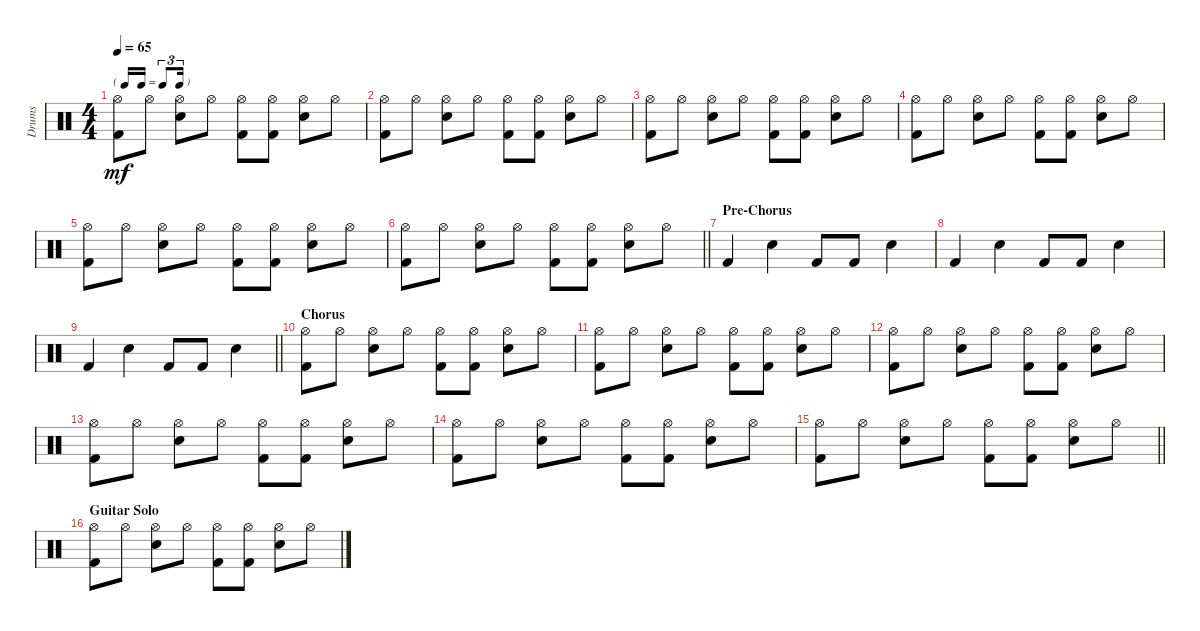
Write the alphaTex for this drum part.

\track ("Drums" "Drums") {instrument percussion}
\staff {score}
\articulation defaults
\ts (4 4)
\tf triplet16th
\tempo 65
\clef neutral
\ks aminor
("Hi-Hat (open)" "Kick (hit) 2").8{dy mf} "Hi-Hat (open)".8 ("Hi-Hat (open)" "Snare (hit) 2").8 "Hi-Hat (open)".8 ("Hi-Hat (open)" "Kick (hit) 2").8 ("Hi-Hat (open)" "Kick (hit) 2").8 ("Hi-Hat (open)" "Snare (hit) 2").8 "Hi-Hat (open)".8 |
("Hi-Hat (open)" "Kick (hit) 2").8 "Hi-Hat (open)".8 ("Hi-Hat (open)" "Snare (hit) 2").8 "Hi-Hat (open)".8 ("Hi-Hat (open)" "Kick (hit) 2").8 ("Hi-Hat (open)" "Kick (hit) 2").8 ("Hi-Hat (open)" "Snare (hit) 2").8 "Hi-Hat (open)".8 |
("Hi-Hat (open)" "Kick (hit) 2").8 "Hi-Hat (open)".8 ("Hi-Hat (open)" "Snare (hit) 2").8 "Hi-Hat (open)".8 ("Hi-Hat (open)" "Kick (hit) 2").8 ("Hi-Hat (open)" "Kick (hit) 2").8 ("Hi-Hat (open)" "Snare (hit) 2").8 "Hi-Hat (open)".8 |
("Hi-Hat (open)" "Kick (hit) 2").8 "Hi-Hat (open)".8 ("Hi-Hat (open)" "Snare (hit) 2").8 "Hi-Hat (open)".8 ("Hi-Hat (open)" "Kick (hit) 2").8 ("Hi-Hat (open)" "Kick (hit) 2").8 ("Hi-Hat (open)" "Snare (hit) 2").8 "Hi-Hat (open)".8 |
("Hi-Hat (open)" "Kick (hit) 2").8 "Hi-Hat (open)".8 ("Hi-Hat (open)" "Snare (hit) 2").8 "Hi-Hat (open)".8 ("Hi-Hat (open)" "Kick (hit) 2").8 ("Hi-Hat (open)" "Kick (hit) 2").8 ("Hi-Hat (open)" "Snare (hit) 2").8 "Hi-Hat (open)".8 |
\barLineRight lightlight
("Hi-Hat (open)" "Kick (hit) 2").8 "Hi-Hat (open)".8 ("Hi-Hat (open)" "Snare (hit) 2").8 "Hi-Hat (open)".8 ("Hi-Hat (open)" "Kick (hit) 2").8 ("Hi-Hat (open)" "Kick (hit) 2").8 ("Hi-Hat (open)" "Snare (hit) 2").8 "Hi-Hat (open)".8 |
\section ("" "Pre-Chorus")
"Kick (hit) 2".4 "Snare (hit) 2".4 "Kick (hit) 2".8 "Kick (hit) 2".8 "Snare (hit) 2".4 |
"Kick (hit) 2".4 "Snare (hit) 2".4 "Kick (hit) 2".8 "Kick (hit) 2".8 "Snare (hit) 2".4 |
\barLineRight lightlight "Kick (hit) 2".4 "Snare (hit) 2".4 "Kick (hit) 2".8 "Kick (hit) 2".8 "Snare (hit) 2".4
|
\section ("" "Chorus")
("Hi-Hat (open)" "Kick (hit) 2").8 "Hi-Hat (open)".8 ("Hi-Hat (open)" "Snare (hit) 2").8 "Hi-Hat (open)".8 ("Hi-Hat (open)" "Kick (hit) 2").8 ("Hi-Hat (open)" "Kick (hit) 2").8 ("Hi-Hat (open)" "Snare (hit) 2").8 "Hi-Hat (open)".8 |
("Hi-Hat (open)" "Kick (hit) 2").8 "Hi-Hat (open)".8 ("Hi-Hat (open)" "Snare (hit) 2").8 "Hi-Hat (open)".8 ("Hi-Hat (open)" "Kick (hit) 2").8 ("Hi-Hat (open)" "Kick (hit) 2").8 ("Hi-Hat (open)" "Snare (hit) 2").8 "Hi-Hat (open)".8 |
("Hi-Hat (open)" "Kick (hit) 2").8 "Hi-Hat (open)".8 ("Hi-Hat (open)" "Snare (hit) 2").8 "Hi-Hat (open)".8 ("Hi-Hat (open)" "Kick (hit) 2").8 ("Hi-Hat (open)" "Kick (hit) 2").8 ("Hi-Hat (open)" "Snare (hit) 2").8 "Hi-Hat (open)".8 |
("Hi-Hat (open)" "Kick (hit) 2").8 "Hi-Hat (open)".8 ("Hi-Hat (open)" "Snare (hit) 2").8 "Hi-Hat (open)".8 ("Hi-Hat (open)" "Kick (hit) 2").8 ("Hi-Hat (open)" "Kick (hit) 2").8 ("Hi-Hat (open)" "Snare (hit) 2").8 "Hi-Hat (open)".8 |
("Hi-Hat (open)" "Kick (hit) 2").8 "Hi-Hat (open)".8 ("Hi-Hat (open)" "Snare (hit) 2").8 "Hi-Hat (open)".8 ("Hi-Hat (open)" "Kick (hit) 2").8 ("Hi-Hat (open)" "Kick (hit) 2").8 ("Hi-Hat (open)" "Snare (hit) 2").8 "Hi-Hat (open)".8 |
\barLineRight lightlight
("Hi-Hat (open)" "Kick (hit) 2").8 "Hi-Hat (open)".8 ("Hi-Hat (open)" "Snare (hit) 2").8 "Hi-Hat (open)".8 ("Hi-Hat (open)" "Kick (hit) 2").8 ("Hi-Hat (open)" "Kick (hit) 2").8 ("Hi-Hat (open)" "Snare (hit) 2").8 "Hi-Hat (open)".8 |
\section ("" "Guitar Solo")
("Hi-Hat (open)" "Kick (hit) 2").8 "Hi-Hat (open)".8 ("Hi-Hat (open)" "Snare (hit) 2").8 "Hi-Hat (open)".8 ("Hi-Hat (open)" "Kick (hit) 2").8 ("Hi-Hat (open)" "Kick (hit) 2").8 ("Hi-Hat (open)" "Snare (hit) 2").8 "Hi-Hat (open)".8
